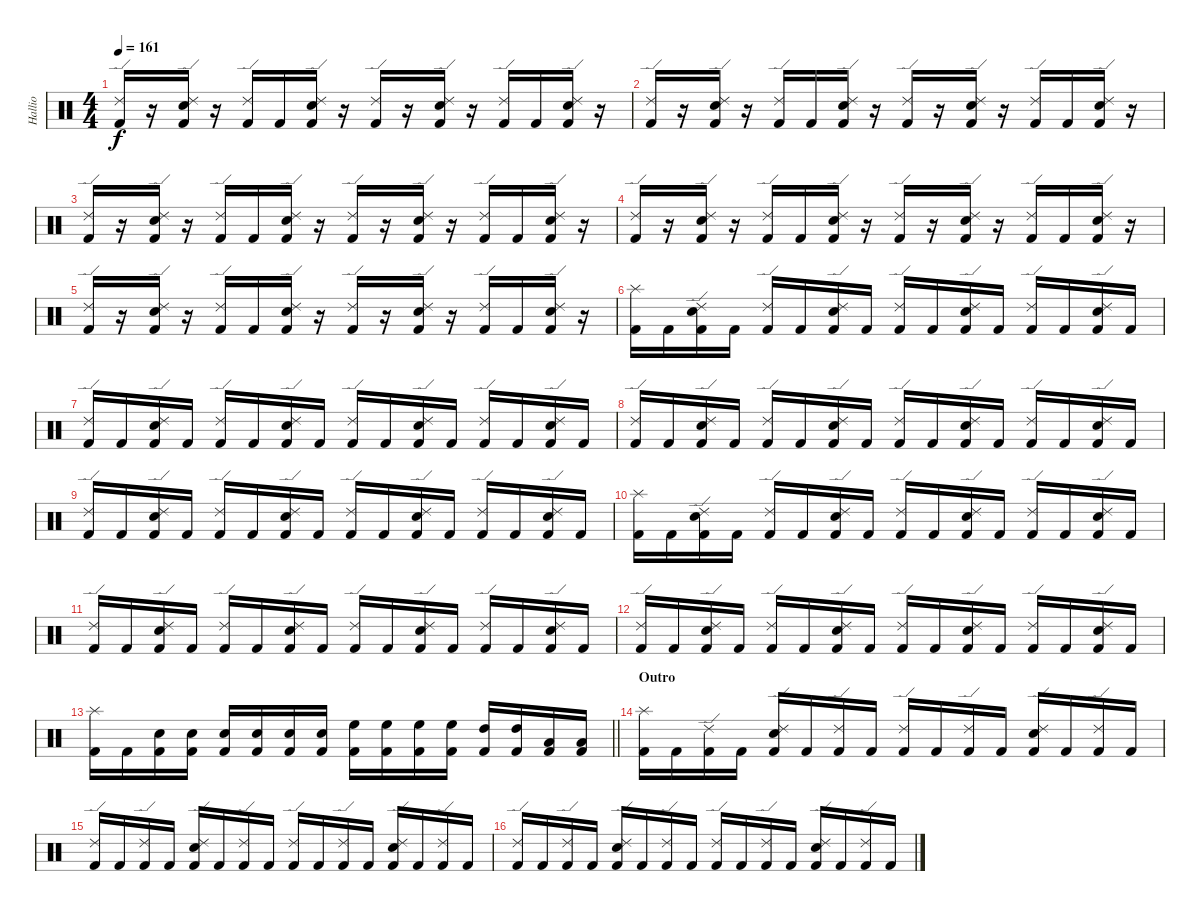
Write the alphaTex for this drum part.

\track ("Hallio" "Hallio") {instrument percussion}
\staff {score}
\articulation defaults
\ts (4 4)
\tempo 161
\clef neutral
\ks c
("Kick (hit) 2" "Ride (edge) 2").16{dy f} r.16 ("Kick (hit) 2" "Snare (hit) 2" "Ride (edge) 2").16 r.16 ("Kick (hit) 2" "Ride (edge) 2").16 "Kick (hit) 2".16 ("Kick (hit) 2" "Snare (hit) 2" "Ride (edge) 2").16 r.16 ("Kick (hit) 2" "Ride (edge) 2").16 r.16 ("Kick (hit) 2" "Snare (hit) 2" "Ride (edge) 2").16 r.16 ("Kick (hit) 2" "Ride (edge) 2").16 "Kick (hit) 2".16 ("Kick (hit) 2" "Snare (hit) 2" "Ride (edge) 2").16 r.16 |
("Kick (hit) 2" "Ride (edge) 2").16 r.16 ("Kick (hit) 2" "Snare (hit) 2" "Ride (edge) 2").16 r.16 ("Kick (hit) 2" "Ride (edge) 2").16 "Kick (hit) 2".16 ("Kick (hit) 2" "Snare (hit) 2" "Ride (edge) 2").16 r.16 ("Kick (hit) 2" "Ride (edge) 2").16 r.16 ("Kick (hit) 2" "Snare (hit) 2" "Ride (edge) 2").16 r.16 ("Kick (hit) 2" "Ride (edge) 2").16 "Kick (hit) 2".16 ("Kick (hit) 2" "Snare (hit) 2" "Ride (edge) 2").16 r.16 |
("Kick (hit) 2" "Ride (edge) 2").16 r.16 ("Kick (hit) 2" "Snare (hit) 2" "Ride (edge) 2").16 r.16 ("Kick (hit) 2" "Ride (edge) 2").16 "Kick (hit) 2".16 ("Kick (hit) 2" "Snare (hit) 2" "Ride (edge) 2").16 r.16 ("Kick (hit) 2" "Ride (edge) 2").16 r.16 ("Kick (hit) 2" "Snare (hit) 2" "Ride (edge) 2").16 r.16 ("Kick (hit) 2" "Ride (edge) 2").16 "Kick (hit) 2".16 ("Kick (hit) 2" "Snare (hit) 2" "Ride (edge) 2").16 r.16 |
("Kick (hit) 2" "Ride (edge) 2").16 r.16 ("Kick (hit) 2" "Snare (hit) 2" "Ride (edge) 2").16 r.16 ("Kick (hit) 2" "Ride (edge) 2").16 "Kick (hit) 2".16 ("Kick (hit) 2" "Snare (hit) 2" "Ride (edge) 2").16 r.16 ("Kick (hit) 2" "Ride (edge) 2").16 r.16 ("Kick (hit) 2" "Snare (hit) 2" "Ride (edge) 2").16 r.16 ("Kick (hit) 2" "Ride (edge) 2").16 "Kick (hit) 2".16 ("Kick (hit) 2" "Snare (hit) 2" "Ride (edge) 2").16 r.16 |
("Kick (hit) 2" "Ride (edge) 2").16 r.16 ("Kick (hit) 2" "Snare (hit) 2" "Ride (edge) 2").16 r.16 ("Kick (hit) 2" "Ride (edge) 2").16 "Kick (hit) 2".16 ("Kick (hit) 2" "Snare (hit) 2" "Ride (edge) 2").16 r.16 ("Kick (hit) 2" "Ride (edge) 2").16 r.16 ("Kick (hit) 2" "Snare (hit) 2" "Ride (edge) 2").16 r.16 ("Kick (hit) 2" "Ride (edge) 2").16 "Kick (hit) 2".16 ("Kick (hit) 2" "Snare (hit) 2" "Ride (edge) 2").16 r.16 |
("Kick (hit) 2" "Splash (hit)").16 "Kick (hit) 2".16 ("Kick (hit) 2" "Snare (hit) 2" "Ride (edge) 2").16 "Kick (hit) 2".16 ("Kick (hit) 2" "Ride (edge) 2").16 "Kick (hit) 2".16 ("Kick (hit) 2" "Snare (hit) 2" "Ride (edge) 2").16 "Kick (hit) 2".16 ("Kick (hit) 2" "Ride (edge) 2").16 "Kick (hit) 2".16 ("Kick (hit) 2" "Snare (hit) 2" "Ride (edge) 2").16 "Kick (hit) 2".16 ("Kick (hit) 2" "Ride (edge) 2").16 "Kick (hit) 2".16 ("Kick (hit) 2" "Snare (hit) 2" "Ride (edge) 2").16 "Kick (hit) 2".16 |
("Kick (hit) 2" "Ride (edge) 2").16 "Kick (hit) 2".16 ("Kick (hit) 2" "Snare (hit) 2" "Ride (edge) 2").16 "Kick (hit) 2".16 ("Kick (hit) 2" "Ride (edge) 2").16 "Kick (hit) 2".16 ("Kick (hit) 2" "Snare (hit) 2" "Ride (edge) 2").16 "Kick (hit) 2".16 ("Kick (hit) 2" "Ride (edge) 2").16 "Kick (hit) 2".16 ("Kick (hit) 2" "Snare (hit) 2" "Ride (edge) 2").16 "Kick (hit) 2".16 ("Kick (hit) 2" "Ride (edge) 2").16 "Kick (hit) 2".16 ("Kick (hit) 2" "Snare (hit) 2" "Ride (edge) 2").16 "Kick (hit) 2".16 |
("Kick (hit) 2" "Ride (edge) 2").16 "Kick (hit) 2".16 ("Kick (hit) 2" "Snare (hit) 2" "Ride (edge) 2").16 "Kick (hit) 2".16 ("Kick (hit) 2" "Ride (edge) 2").16 "Kick (hit) 2".16 ("Kick (hit) 2" "Snare (hit) 2" "Ride (edge) 2").16 "Kick (hit) 2".16 ("Kick (hit) 2" "Ride (edge) 2").16 "Kick (hit) 2".16 ("Kick (hit) 2" "Snare (hit) 2" "Ride (edge) 2").16 "Kick (hit) 2".16 ("Kick (hit) 2" "Ride (edge) 2").16 "Kick (hit) 2".16 ("Kick (hit) 2" "Snare (hit) 2" "Ride (edge) 2").16 "Kick (hit) 2".16 |
("Kick (hit) 2" "Ride (edge) 2").16 "Kick (hit) 2".16 ("Kick (hit) 2" "Snare (hit) 2" "Ride (edge) 2").16 "Kick (hit) 2".16 ("Kick (hit) 2" "Ride (edge) 2").16 "Kick (hit) 2".16 ("Kick (hit) 2" "Snare (hit) 2" "Ride (edge) 2").16 "Kick (hit) 2".16 ("Kick (hit) 2" "Ride (edge) 2").16 "Kick (hit) 2".16 ("Kick (hit) 2" "Snare (hit) 2" "Ride (edge) 2").16 "Kick (hit) 2".16 ("Kick (hit) 2" "Ride (edge) 2").16 "Kick (hit) 2".16 ("Kick (hit) 2" "Snare (hit) 2" "Ride (edge) 2").16 "Kick (hit) 2".16 |
("Kick (hit) 2" "Splash (hit)").16 "Kick (hit) 2".16 ("Kick (hit) 2" "Snare (hit) 2" "Ride (edge) 2").16 "Kick (hit) 2".16 ("Kick (hit) 2" "Ride (edge) 2").16 "Kick (hit) 2".16 ("Kick (hit) 2" "Snare (hit) 2" "Ride (edge) 2").16 "Kick (hit) 2".16 ("Kick (hit) 2" "Ride (edge) 2").16 "Kick (hit) 2".16 ("Kick (hit) 2" "Snare (hit) 2" "Ride (edge) 2").16 "Kick (hit) 2".16 ("Kick (hit) 2" "Ride (edge) 2").16 "Kick (hit) 2".16 ("Kick (hit) 2" "Snare (hit) 2" "Ride (edge) 2").16 "Kick (hit) 2".16 |
("Kick (hit) 2" "Ride (edge) 2").16 "Kick (hit) 2".16 ("Kick (hit) 2" "Snare (hit) 2" "Ride (edge) 2").16 "Kick (hit) 2".16 ("Kick (hit) 2" "Ride (edge) 2").16 "Kick (hit) 2".16 ("Kick (hit) 2" "Snare (hit) 2" "Ride (edge) 2").16 "Kick (hit) 2".16 ("Kick (hit) 2" "Ride (edge) 2").16 "Kick (hit) 2".16 ("Kick (hit) 2" "Snare (hit) 2" "Ride (edge) 2").16 "Kick (hit) 2".16 ("Kick (hit) 2" "Ride (edge) 2").16 "Kick (hit) 2".16 ("Kick (hit) 2" "Snare (hit) 2" "Ride (edge) 2").16 "Kick (hit) 2".16 |
("Kick (hit) 2" "Ride (edge) 2").16 "Kick (hit) 2".16 ("Kick (hit) 2" "Snare (hit) 2" "Ride (edge) 2").16 "Kick (hit) 2".16 ("Kick (hit) 2" "Ride (edge) 2").16 "Kick (hit) 2".16 ("Kick (hit) 2" "Snare (hit) 2" "Ride (edge) 2").16 "Kick (hit) 2".16 ("Kick (hit) 2" "Ride (edge) 2").16 "Kick (hit) 2".16 ("Kick (hit) 2" "Snare (hit) 2" "Ride (edge) 2").16 "Kick (hit) 2".16 ("Kick (hit) 2" "Ride (edge) 2").16 "Kick (hit) 2".16 ("Kick (hit) 2" "Snare (hit) 2" "Ride (edge) 2").16 "Kick (hit) 2".16 |
\barLineRight lightlight
("Kick (hit) 2" "Splash (hit)").16 "Kick (hit) 2".16 ("Kick (hit) 2" "Snare (hit) 2").16 ("Kick (hit) 2" "Snare (hit) 2").16 ("Kick (hit) 2" "Snare (hit) 2").16 ("Kick (hit) 2" "Snare (hit) 2").16 ("Kick (hit) 2" "Snare (hit) 2").16 ("Kick (hit) 2" "Snare (hit) 2").16 ("Kick (hit) 2" "High Floor Tom (hit)").16 ("Kick (hit) 2" "High Floor Tom (hit)").16 ("Kick (hit) 2" "High Floor Tom (hit)").16 ("Kick (hit) 2" "High Floor Tom (hit)").16 ("Kick (hit) 2" "High Tom (hit)").16 ("Kick (hit) 2" "High Tom (hit)").16 ("Kick (hit) 2" "Low Tom (hit)").16 ("Kick (hit) 2" "Low Tom (hit)").16 |
\section ("" "Outro")
("Kick (hit) 2" "Splash (hit)").16 "Kick (hit) 2".16 ("Kick (hit) 2" "Ride (edge) 2").16 "Kick (hit) 2".16 ("Kick (hit) 2" "Snare (hit) 2" "Ride (edge) 2").16 "Kick (hit) 2".16 ("Kick (hit) 2" "Ride (edge) 2").16 "Kick (hit) 2".16 ("Kick (hit) 2" "Ride (edge) 2").16 "Kick (hit) 2".16 ("Kick (hit) 2" "Ride (edge) 2").16 "Kick (hit) 2".16 ("Kick (hit) 2" "Snare (hit) 2" "Ride (edge) 2").16 "Kick (hit) 2".16 ("Kick (hit) 2" "Ride (edge) 2").16 "Kick (hit) 2".16 |
("Kick (hit) 2" "Ride (edge) 2").16 "Kick (hit) 2".16 ("Kick (hit) 2" "Ride (edge) 2").16 "Kick (hit) 2".16 ("Kick (hit) 2" "Snare (hit) 2" "Ride (edge) 2").16 "Kick (hit) 2".16 ("Kick (hit) 2" "Ride (edge) 2").16 "Kick (hit) 2".16 ("Kick (hit) 2" "Ride (edge) 2").16 "Kick (hit) 2".16 ("Kick (hit) 2" "Ride (edge) 2").16 "Kick (hit) 2".16 ("Kick (hit) 2" "Snare (hit) 2" "Ride (edge) 2").16 "Kick (hit) 2".16 ("Kick (hit) 2" "Ride (edge) 2").16 "Kick (hit) 2".16 |
("Kick (hit) 2" "Ride (edge) 2").16 "Kick (hit) 2".16 ("Kick (hit) 2" "Ride (edge) 2").16 "Kick (hit) 2".16 ("Kick (hit) 2" "Snare (hit) 2" "Ride (edge) 2").16 "Kick (hit) 2".16 ("Kick (hit) 2" "Ride (edge) 2").16 "Kick (hit) 2".16 ("Kick (hit) 2" "Ride (edge) 2").16 "Kick (hit) 2".16 ("Kick (hit) 2" "Ride (edge) 2").16 "Kick (hit) 2".16 ("Kick (hit) 2" "Snare (hit) 2" "Ride (edge) 2").16 "Kick (hit) 2".16 ("Kick (hit) 2" "Ride (edge) 2").16 "Kick (hit) 2".16
